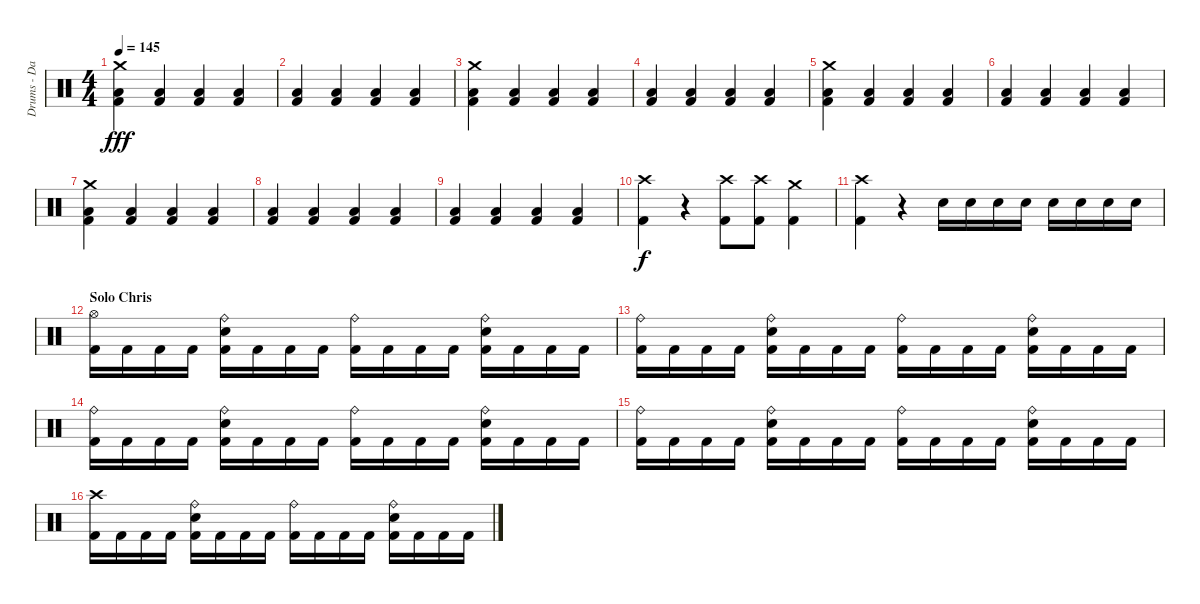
\track ("Drums - Daniel Zimmermann" "Drums - Da") {instrument percussion}
\staff {score}
\articulation defaults
\ts (4 4)
\tempo 145
\clef neutral
\ks c
("Kick (hit) 2" "Low Floor Tom (hit)" "Crash medium (hit)").4{dy fff} ("Kick (hit) 2" "Low Floor Tom (hit)").4 ("Kick (hit) 2" "Low Floor Tom (hit)").4 ("Kick (hit) 2" "Low Floor Tom (hit)").4 |
("Kick (hit) 2" "Low Floor Tom (hit)").4 ("Kick (hit) 2" "Low Floor Tom (hit)").4 ("Kick (hit) 2" "Low Floor Tom (hit)").4 ("Kick (hit) 2" "Low Floor Tom (hit)").4 |
("Kick (hit) 2" "Low Floor Tom (hit)" "Crash medium (hit)").4 ("Kick (hit) 2" "Low Floor Tom (hit)").4 ("Kick (hit) 2" "Low Floor Tom (hit)").4 ("Kick (hit) 2" "Low Floor Tom (hit)").4 |
("Kick (hit) 2" "Low Floor Tom (hit)").4 ("Kick (hit) 2" "Low Floor Tom (hit)").4 ("Kick (hit) 2" "Low Floor Tom (hit)").4 ("Kick (hit) 2" "Low Floor Tom (hit)").4 |
("Kick (hit) 2" "Low Floor Tom (hit)" "Crash medium (hit)").4 ("Kick (hit) 2" "Low Floor Tom (hit)").4 ("Kick (hit) 2" "Low Floor Tom (hit)").4 ("Kick (hit) 2" "Low Floor Tom (hit)").4 |
("Kick (hit) 2" "Low Floor Tom (hit)").4 ("Kick (hit) 2" "Low Floor Tom (hit)").4 ("Kick (hit) 2" "Low Floor Tom (hit)").4 ("Kick (hit) 2" "Low Floor Tom (hit)").4 |
("Kick (hit) 2" "Low Floor Tom (hit)" "Crash medium (hit)").4 ("Kick (hit) 2" "Low Floor Tom (hit)").4 ("Kick (hit) 2" "Low Floor Tom (hit)").4 ("Kick (hit) 2" "Low Floor Tom (hit)").4 |
("Kick (hit) 2" "Low Floor Tom (hit)").4 ("Kick (hit) 2" "Low Floor Tom (hit)").4 ("Kick (hit) 2" "Low Floor Tom (hit)").4 ("Kick (hit) 2" "Low Floor Tom (hit)").4 |
("Kick (hit) 2" "Low Floor Tom (hit)").4 ("Kick (hit) 2" "Low Floor Tom (hit)").4 ("Kick (hit) 2" "Low Floor Tom (hit)").4 ("Kick (hit) 2" "Low Floor Tom (hit)").4 |
("Kick (hit) 2" "Crash high (hit)").4{dy f} r.4 ("Kick (hit) 2" "Crash high (hit)").8 ("Kick (hit) 2" "Crash high (hit)").8 ("Kick (hit) 2" "Crash medium (hit)").4 |
("Kick (hit) 2" "Crash high (hit)").4 r.4 "Electric Snare (hit)".16 "Electric Snare (hit)".16 "Electric Snare (hit)".16 "Electric Snare (hit)".16 "Electric Snare (hit)".16 "Electric Snare (hit)".16 "Electric Snare (hit)".16 "Electric Snare (hit)".16 |
\section ("" "Solo Chris")
("Kick (hit) 2" "Hi-Hat (open)").16 "Kick (hit) 2".16 "Kick (hit) 2".16 "Kick (hit) 2".16 ("Kick (hit) 2" "Electric Snare (hit)" "Ride (bell)").16 "Kick (hit) 2".16 "Kick (hit) 2".16 "Kick (hit) 2".16 ("Kick (hit) 2" "Ride (bell)").16 "Kick (hit) 2".16 "Kick (hit) 2".16 "Kick (hit) 2".16 ("Kick (hit) 2" "Electric Snare (hit)" "Ride (bell)").16 "Kick (hit) 2".16 "Kick (hit) 2".16 "Kick (hit) 2".16 |
("Kick (hit) 2" "Ride (bell)").16 "Kick (hit) 2".16 "Kick (hit) 2".16 "Kick (hit) 2".16 ("Kick (hit) 2" "Electric Snare (hit)" "Ride (bell)").16 "Kick (hit) 2".16 "Kick (hit) 2".16 "Kick (hit) 2".16 ("Kick (hit) 2" "Ride (bell)").16 "Kick (hit) 2".16 "Kick (hit) 2".16 "Kick (hit) 2".16 ("Kick (hit) 2" "Electric Snare (hit)" "Ride (bell)").16 "Kick (hit) 2".16 "Kick (hit) 2".16 "Kick (hit) 2".16 |
("Kick (hit) 2" "Ride (bell)").16 "Kick (hit) 2".16 "Kick (hit) 2".16 "Kick (hit) 2".16 ("Kick (hit) 2" "Electric Snare (hit)" "Ride (bell)").16 "Kick (hit) 2".16 "Kick (hit) 2".16 "Kick (hit) 2".16 ("Kick (hit) 2" "Ride (bell)").16 "Kick (hit) 2".16 "Kick (hit) 2".16 "Kick (hit) 2".16 ("Kick (hit) 2" "Electric Snare (hit)" "Ride (bell)").16 "Kick (hit) 2".16 "Kick (hit) 2".16 "Kick (hit) 2".16 |
("Kick (hit) 2" "Ride (bell)").16 "Kick (hit) 2".16 "Kick (hit) 2".16 "Kick (hit) 2".16 ("Kick (hit) 2" "Electric Snare (hit)" "Ride (bell)").16 "Kick (hit) 2".16 "Kick (hit) 2".16 "Kick (hit) 2".16 ("Kick (hit) 2" "Ride (bell)").16 "Kick (hit) 2".16 "Kick (hit) 2".16 "Kick (hit) 2".16 ("Kick (hit) 2" "Electric Snare (hit)" "Ride (bell)").16 "Kick (hit) 2".16 "Kick (hit) 2".16 "Kick (hit) 2".16 |
("Kick (hit) 2" "Crash high (hit)").16 "Kick (hit) 2".16 "Kick (hit) 2".16 "Kick (hit) 2".16 ("Kick (hit) 2" "Electric Snare (hit)" "Ride (bell)").16 "Kick (hit) 2".16 "Kick (hit) 2".16 "Kick (hit) 2".16 ("Kick (hit) 2" "Ride (bell)").16 "Kick (hit) 2".16 "Kick (hit) 2".16 "Kick (hit) 2".16 ("Kick (hit) 2" "Electric Snare (hit)" "Ride (bell)").16 "Kick (hit) 2".16 "Kick (hit) 2".16 "Kick (hit) 2".16
